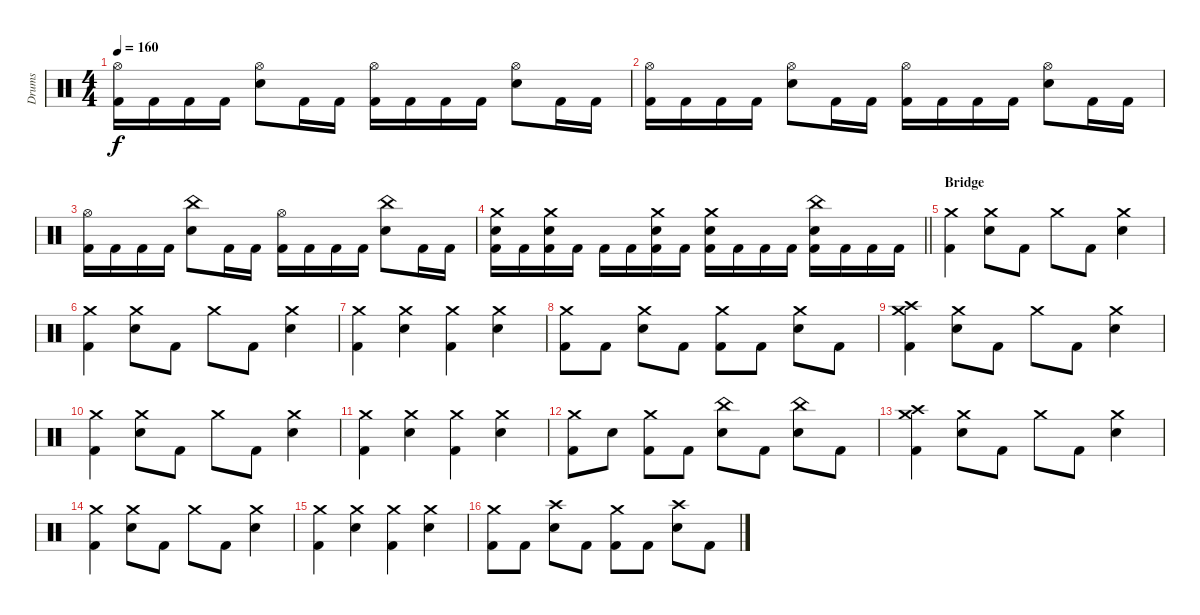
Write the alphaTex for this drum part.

\track ("Drums" "Drums") {instrument percussion}
\staff {score}
\articulation defaults
\ts (4 4)
\tempo 160
\clef neutral
\ks c
("Hi-Hat (open)" "Kick (hit) 2").16{dy f} "Kick (hit) 2".16 "Kick (hit) 2".16 "Kick (hit) 2".16 ("Hi-Hat (open)" "Snare (hit) 2").8 "Kick (hit) 2".16 "Kick (hit) 2".16 ("Hi-Hat (open)" "Kick (hit) 2").16 "Kick (hit) 2".16 "Kick (hit) 2".16 "Kick (hit) 2".16 ("Hi-Hat (open)" "Snare (hit) 2").8 "Kick (hit) 2".16 "Kick (hit) 2".16 |
("Hi-Hat (open)" "Kick (hit) 2").16 "Kick (hit) 2".16 "Kick (hit) 2".16 "Kick (hit) 2".16 ("Hi-Hat (open)" "Snare (hit) 2").8 "Kick (hit) 2".16 "Kick (hit) 2".16 ("Hi-Hat (open)" "Kick (hit) 2").16 "Kick (hit) 2".16 "Kick (hit) 2".16 "Kick (hit) 2".16 ("Hi-Hat (open)" "Snare (hit) 2").8 "Kick (hit) 2".16 "Kick (hit) 2".16 |
("Hi-Hat (open)" "Kick (hit) 2").16 "Kick (hit) 2".16 "Kick (hit) 2".16 "Kick (hit) 2".16 ("China (hit)" "Snare (hit) 2").8 "Kick (hit) 2".16 "Kick (hit) 2".16 ("Hi-Hat (open)" "Kick (hit) 2").16 "Kick (hit) 2".16 "Kick (hit) 2".16 "Kick (hit) 2".16 ("China (hit)" "Snare (hit) 2").8 "Kick (hit) 2".16 "Kick (hit) 2".16 |
\barLineRight lightlight
("Crash medium (hit)" "Snare (hit) 2" "Kick (hit) 2").16 "Kick (hit) 2".16 ("Crash medium (hit)" "Snare (hit) 2" "Kick (hit) 2").16 "Kick (hit) 2".16 "Kick (hit) 2".16 "Kick (hit) 2".16 ("Crash medium (hit)" "Snare (hit) 2" "Kick (hit) 2").16 "Kick (hit) 2".16 ("Crash medium (hit)" "Snare (hit) 2" "Kick (hit) 2").16 "Kick (hit) 2".16 "Kick (hit) 2".16 "Kick (hit) 2".16 ("China (hit)" "Snare (hit) 2" "Kick (hit) 2").16 "Kick (hit) 2".16 "Kick (hit) 2".16 "Kick (hit) 2".16 |
\section ("" "Bridge")
("Crash medium (hit)" "Kick (hit) 2").4 ("Crash medium (hit)" "Snare (hit) 2").8 "Kick (hit) 2".8 "Crash medium (hit)".8 "Kick (hit) 2".8 ("Crash medium (hit)" "Snare (hit) 2").4 |
("Crash medium (hit)" "Kick (hit) 2").4 ("Crash medium (hit)" "Snare (hit) 2").8 "Kick (hit) 2".8 "Crash medium (hit)".8 "Kick (hit) 2".8 ("Crash medium (hit)" "Snare (hit) 2").4 |
("Crash medium (hit)" "Kick (hit) 2").4 ("Crash medium (hit)" "Snare (hit) 2").4 ("Crash medium (hit)" "Kick (hit) 2").4 ("Crash medium (hit)" "Snare (hit) 2").4 |
("Crash medium (hit)" "Kick (hit) 2").8 "Kick (hit) 2".8 ("Crash medium (hit)" "Snare (hit) 2").8 "Kick (hit) 2".8 ("Crash medium (hit)" "Kick (hit) 2").8 "Kick (hit) 2".8 ("Crash medium (hit)" "Snare (hit) 2").8 "Kick (hit) 2".8 |
("Crash medium (hit)" "Crash high (hit)" "Kick (hit) 2").4 ("Crash medium (hit)" "Snare (hit) 2").8 "Kick (hit) 2".8 "Crash medium (hit)".8 "Kick (hit) 2".8 ("Crash medium (hit)" "Snare (hit) 2").4 |
("Crash medium (hit)" "Kick (hit) 2").4 ("Crash medium (hit)" "Snare (hit) 2").8 "Kick (hit) 2".8 "Crash medium (hit)".8 "Kick (hit) 2".8 ("Crash medium (hit)" "Snare (hit) 2").4 |
("Crash medium (hit)" "Kick (hit) 2").4 ("Crash medium (hit)" "Snare (hit) 2").4 ("Crash medium (hit)" "Kick (hit) 2").4 ("Crash medium (hit)" "Snare (hit) 2").4 |
("Crash medium (hit)" "Kick (hit) 2").8 "Snare (hit) 2".8 ("Crash medium (hit)" "Kick (hit) 2").8 "Kick (hit) 2".8 ("China (hit)" "Snare (hit) 2").8 "Kick (hit) 2".8 ("China (hit)" "Snare (hit) 2").8 "Kick (hit) 2".8 |
("Crash medium (hit)" "Crash high (hit)" "Kick (hit) 2").4 ("Crash medium (hit)" "Snare (hit) 2").8 "Kick (hit) 2".8 "Crash medium (hit)".8 "Kick (hit) 2".8 ("Crash medium (hit)" "Snare (hit) 2").4 |
("Crash medium (hit)" "Kick (hit) 2").4 ("Crash medium (hit)" "Snare (hit) 2").8 "Kick (hit) 2".8 "Crash medium (hit)".8 "Kick (hit) 2".8 ("Crash medium (hit)" "Snare (hit) 2").4 |
("Crash medium (hit)" "Kick (hit) 2").4 ("Crash medium (hit)" "Snare (hit) 2").4 ("Crash medium (hit)" "Kick (hit) 2").4 ("Crash medium (hit)" "Snare (hit) 2").4 |
("Crash medium (hit)" "Kick (hit) 2").8 "Kick (hit) 2".8 ("Crash high (hit)" "Snare (hit) 2").8 "Kick (hit) 2".8 ("Crash medium (hit)" "Kick (hit) 2").8 "Kick (hit) 2".8 ("Crash high (hit)" "Snare (hit) 2").8 "Kick (hit) 2".8
